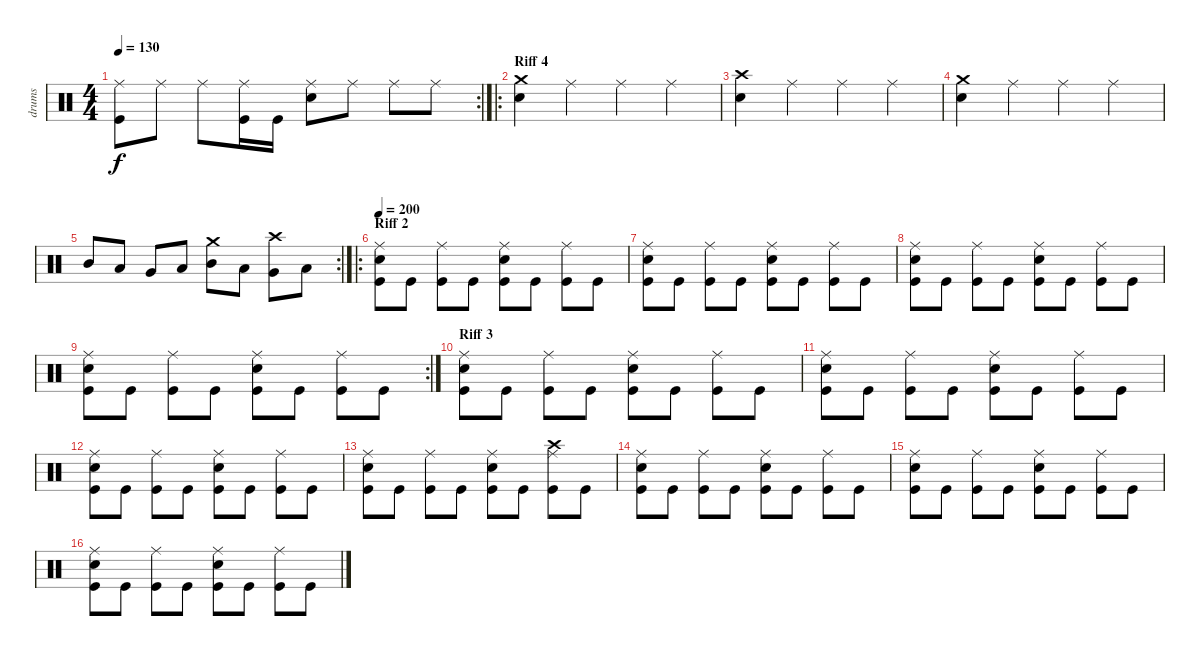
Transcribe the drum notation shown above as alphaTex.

\track ("drums" "drums") {instrument percussion}
\staff {score}
\articulation defaults
\rc 2
\ts (4 4)
\tempo 130
\clef neutral
\ks c
("Ride (middle)" "Kick (hit)").8{dy f} "Ride (middle)".8 "Ride (middle)".8 ("Ride (middle)" "Kick (hit)").16 "Kick (hit)".16 ("Snare (hit) 2" "Ride (middle)").8 "Ride (middle)".8 "Ride (middle)".8 "Ride (middle)".8 |
\ro
\section ("" "Riff 4")
("Crash medium (hit)" "Snare (hit) 2").4 "Ride (middle)".4 "Ride (middle)".4 "Ride (middle)".4 |
("Crash high (hit)" "Snare (hit) 2").4 "Ride (middle)".4 "Ride (middle)".4 "Ride (middle)".4 |
("Crash medium (hit)" "Snare (hit) 2").4 "Ride (middle)".4 "Ride (middle)".4 "Ride (middle)".4 |
\rc 2 "Mid Tom (hit)".8 "Low Tom (hit)".8 "Very Low Tom (hit)".8 "Low Floor Tom (hit)".8
("Crash medium (hit)" "Mid Tom (hit)").8 "Low Tom (hit)".8 ("Crash high (hit)" "Very Low Tom (hit)").8 "Low Floor Tom (hit)".8 |
\ro
\section ("" "Riff 2")
\tempo 200
("Ride (middle)" "Snare (hit) 2" "Kick (hit)").8 "Kick (hit)".8 ("Ride (middle)" "Kick (hit)").8 "Kick (hit)".8 ("Ride (middle)" "Snare (hit) 2" "Kick (hit)").8 "Kick (hit)".8 ("Ride (middle)" "Kick (hit)").8 "Kick (hit)".8 |
("Ride (middle)" "Snare (hit) 2" "Kick (hit)").8 "Kick (hit)".8 ("Ride (middle)" "Kick (hit)").8 "Kick (hit)".8 ("Ride (middle)" "Snare (hit) 2" "Kick (hit)").8 "Kick (hit)".8 ("Ride (middle)" "Kick (hit)").8 "Kick (hit)".8 |
("Ride (middle)" "Snare (hit) 2" "Kick (hit)").8 "Kick (hit)".8 ("Ride (middle)" "Kick (hit)").8 "Kick (hit)".8 ("Ride (middle)" "Snare (hit) 2" "Kick (hit)").8 "Kick (hit)".8 ("Ride (middle)" "Kick (hit)").8 "Kick (hit)".8 |
\rc 2
("Ride (middle)" "Snare (hit) 2" "Kick (hit)").8 "Kick (hit)".8 ("Ride (middle)" "Kick (hit)").8 "Kick (hit)".8 ("Ride (middle)" "Snare (hit) 2" "Kick (hit)").8 "Kick (hit)".8 ("Ride (middle)" "Kick (hit)").8 "Kick (hit)".8 |
\section ("" "Riff 3")
("Ride (middle)" "Snare (hit) 2" "Kick (hit)").8 "Kick (hit)".8 ("Ride (middle)" "Kick (hit)").8 "Kick (hit)".8 ("Ride (middle)" "Snare (hit) 2" "Kick (hit)").8 "Kick (hit)".8 ("Ride (middle)" "Kick (hit)").8 "Kick (hit)".8 |
("Ride (middle)" "Snare (hit) 2" "Kick (hit)").8 "Kick (hit)".8 ("Ride (middle)" "Kick (hit)").8 "Kick (hit)".8 ("Ride (middle)" "Snare (hit) 2" "Kick (hit)").8 "Kick (hit)".8 ("Ride (middle)" "Kick (hit)").8 "Kick (hit)".8 |
("Ride (middle)" "Snare (hit) 2" "Kick (hit)").8 "Kick (hit)".8 ("Ride (middle)" "Kick (hit)").8 "Kick (hit)".8 ("Ride (middle)" "Snare (hit) 2" "Kick (hit)").8 "Kick (hit)".8 ("Ride (middle)" "Kick (hit)").8 "Kick (hit)".8 |
("Ride (middle)" "Snare (hit) 2" "Kick (hit)").8 "Kick (hit)".8 ("Ride (middle)" "Kick (hit)").8 "Kick (hit)".8 ("Ride (middle)" "Snare (hit) 2" "Kick (hit)").8 "Kick (hit)".8 ("Ride (middle)" "Crash high (hit)" "Kick (hit)").8 "Kick (hit)".8 |
("Ride (middle)" "Snare (hit) 2" "Kick (hit)").8 "Kick (hit)".8 ("Ride (middle)" "Kick (hit)").8 "Kick (hit)".8 ("Ride (middle)" "Snare (hit) 2" "Kick (hit)").8 "Kick (hit)".8 ("Ride (middle)" "Kick (hit)").8 "Kick (hit)".8 |
("Ride (middle)" "Snare (hit) 2" "Kick (hit)").8 "Kick (hit)".8 ("Ride (middle)" "Kick (hit)").8 "Kick (hit)".8 ("Ride (middle)" "Snare (hit) 2" "Kick (hit)").8 "Kick (hit)".8 ("Ride (middle)" "Kick (hit)").8 "Kick (hit)".8 |
("Ride (middle)" "Snare (hit) 2" "Kick (hit)").8 "Kick (hit)".8 ("Ride (middle)" "Kick (hit)").8 "Kick (hit)".8 ("Ride (middle)" "Snare (hit) 2" "Kick (hit)").8 "Kick (hit)".8 ("Ride (middle)" "Kick (hit)").8 "Kick (hit)".8
